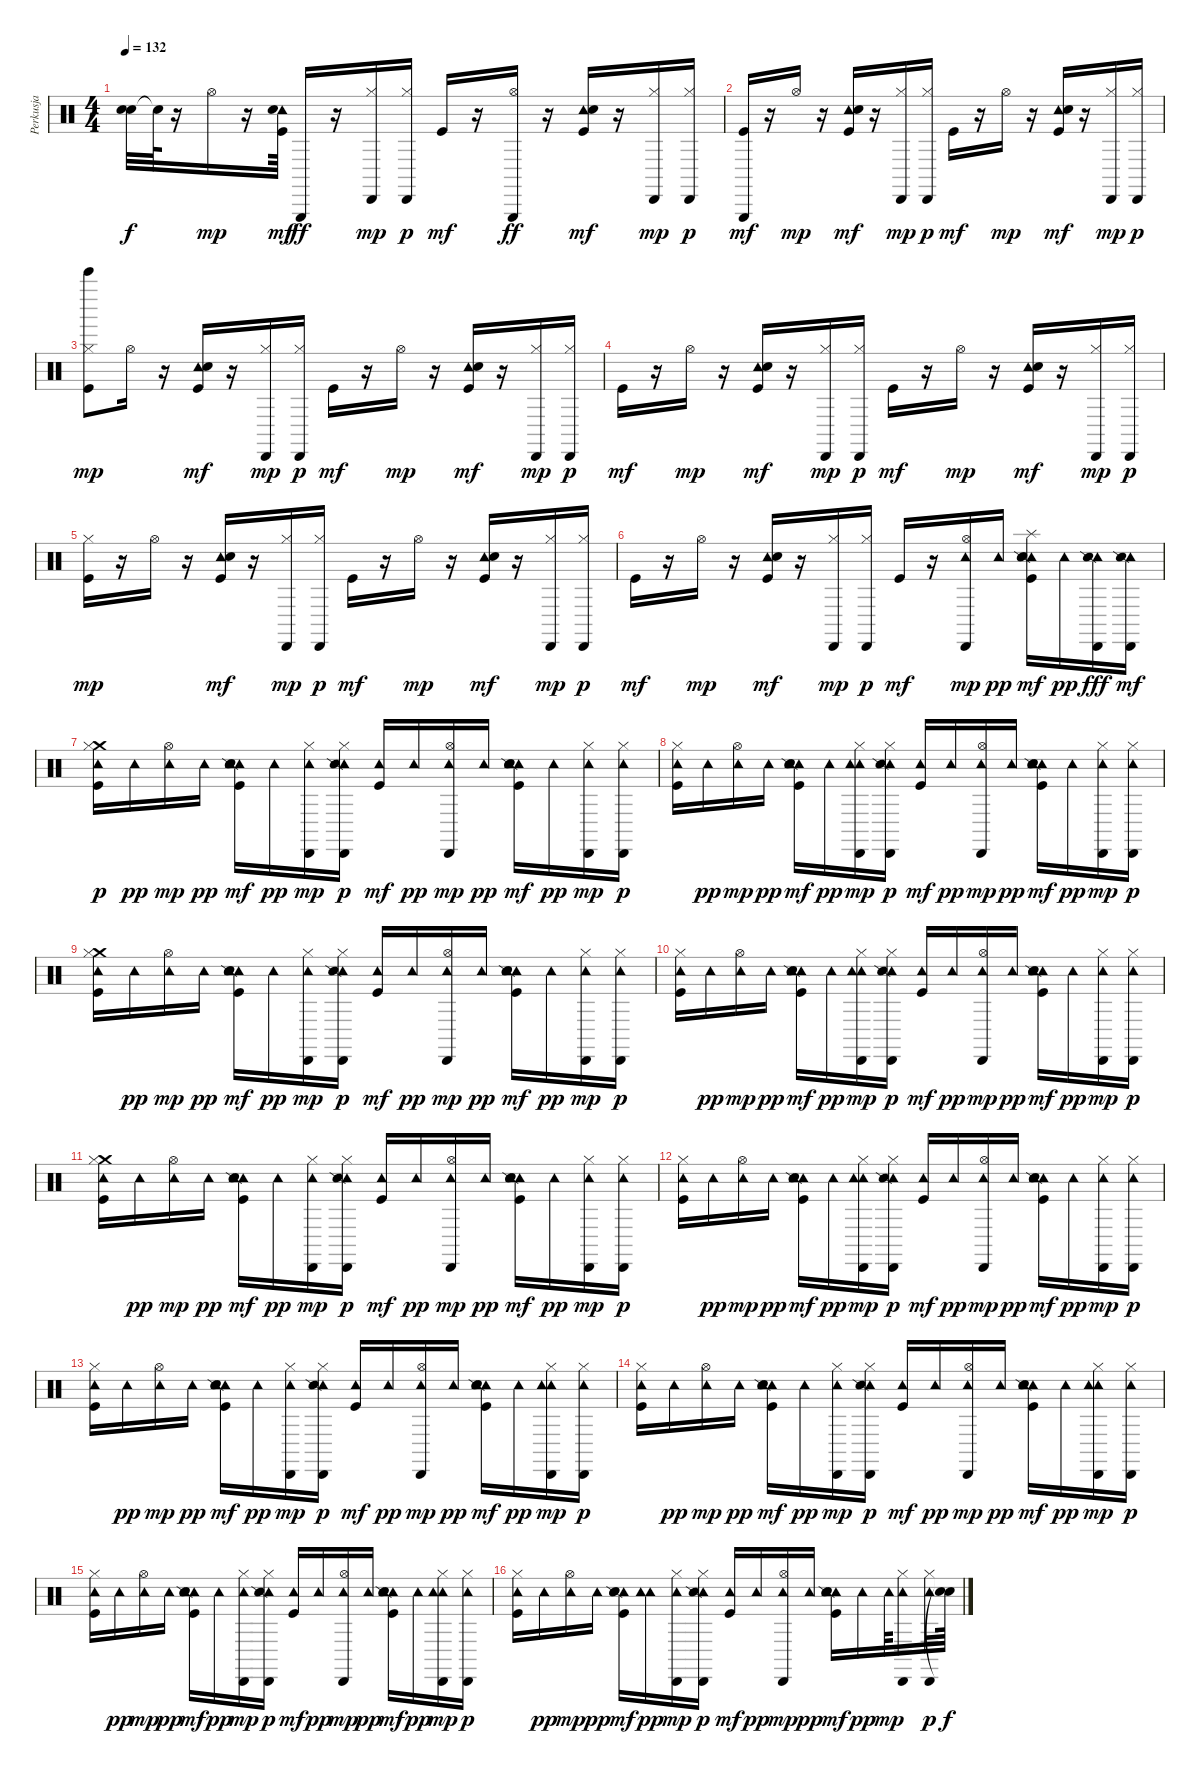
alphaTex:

\track ("Perkusja" "Perkusja") {instrument percussion}
\staff {score}
\articulation defaults
\ts (4 4)
\tempo 132
\clef neutral
\ks c
("Snare (hit)"{t} "Snare (hit)"{t}).32{dy f} "Snare (hit)"{t}.64 r.16 "Hi-Hat (open)".16{dy mp} r.16 ("Tambourine (hit)" "Snare (hit) 2" "Kick (hit)").64{dy mf} "Triangle (hit)".16{dy ff} r.16 ("Cabasa (hit)" "Hi-Hat (closed)").16{dy mp} ("Cabasa (hit)" "Hi-Hat (closed)").16{dy p} "Kick (hit)".16{dy mf} r.16 ("Hi-Hat (open)" "Triangle (hit)").16{dy ff} r.16 ("Tambourine (hit)" "Snare (hit) 2" "Kick (hit)").16{dy mf} r.16 ("Cabasa (hit)" "Hi-Hat (closed)").16{dy mp} ("Cabasa (hit)" "Hi-Hat (closed)").16{dy p} |
("Triangle (hit)" "Kick (hit)").16{dy mf} r.16 "Hi-Hat (open)".16{dy mp} r.16 ("Tambourine (hit)" "Snare (hit) 2" "Kick (hit)").16{dy mf} r.16 ("Cabasa (hit)" "Hi-Hat (closed)").16{dy mp} ("Cabasa (hit)" "Hi-Hat (closed)").16{dy p} "Kick (hit)".16{dy mf} r.16 "Hi-Hat (open)".16{dy mp} r.16 ("Tambourine (hit)" "Snare (hit) 2" "Kick (hit)").16{dy mf} r.16 ("Cabasa (hit)" "Hi-Hat (closed)").16{dy mp} ("Cabasa (hit)" "Hi-Hat (closed)").16{dy p} |
("Bell Tree (hit)" "Kick (hit)" "Hi-Hat (closed)").8{dy mp} "Hi-Hat (open)".16 r.16 ("Tambourine (hit)" "Snare (hit) 2" "Kick (hit)").16{dy mf} r.16 ("Cabasa (hit)" "Hi-Hat (closed)").16{dy mp} ("Cabasa (hit)" "Hi-Hat (closed)").16{dy p} "Kick (hit)".16{dy mf} r.16 "Hi-Hat (open)".16{dy mp} r.16 ("Tambourine (hit)" "Snare (hit) 2" "Kick (hit)").16{dy mf} r.16 ("Cabasa (hit)" "Hi-Hat (closed)").16{dy mp} ("Cabasa (hit)" "Hi-Hat (closed)").16{dy p} |
"Kick (hit)".16{dy mf} r.16 "Hi-Hat (open)".16{dy mp} r.16 ("Tambourine (hit)" "Snare (hit) 2" "Kick (hit)").16{dy mf} r.16 ("Cabasa (hit)" "Hi-Hat (closed)").16{dy mp} ("Cabasa (hit)" "Hi-Hat (closed)").16{dy p} "Kick (hit)".16{dy mf} r.16 "Hi-Hat (open)".16{dy mp} r.16 ("Tambourine (hit)" "Snare (hit) 2" "Kick (hit)").16{dy mf} r.16 ("Cabasa (hit)" "Hi-Hat (closed)").16{dy mp} ("Cabasa (hit)" "Hi-Hat (closed)").16{dy p} |
("Kick (hit)" "Hi-Hat (closed)").16{dy mp} r.16 "Hi-Hat (open)".16 r.16 ("Tambourine (hit)" "Snare (hit) 2" "Kick (hit)").16{dy mf} r.16 ("Cabasa (hit)" "Hi-Hat (closed)").16{dy mp} ("Cabasa (hit)" "Hi-Hat (closed)").16{dy p} "Kick (hit)".16{dy mf} r.16 "Hi-Hat (open)".16{dy mp} r.16 ("Tambourine (hit)" "Snare (hit) 2" "Kick (hit)").16{dy mf} r.16 ("Cabasa (hit)" "Hi-Hat (closed)").16{dy mp} ("Cabasa (hit)" "Hi-Hat (closed)").16{dy p} |
"Kick (hit)".16{dy mf} r.16 "Hi-Hat (open)".16{dy mp} r.16 ("Tambourine (hit)" "Snare (hit) 2" "Kick (hit)").16{dy mf} r.16 ("Cabasa (hit)" "Hi-Hat (closed)").16{dy mp} ("Cabasa (hit)" "Hi-Hat (closed)").16{dy p} "Kick (hit)".16{dy mf} r.16 ("Tambourine (hit)" "Cabasa (hit)" "Hi-Hat (open)").16{dy mp} "Tambourine (hit)".16{dy pp} ("Tambourine (hit)" "Snare (hit) 2" "Snare (side stick) 2" "Kick (hit)" "Splash (hit)").16{dy mf} "Tambourine (hit)".16{dy pp} ("Tambourine (hit)" "Snare (side stick) 2" "Cabasa (hit)").16{dy fff} ("Tambourine (hit)" "Snare (side stick) 2" "Cabasa (hit)").16{dy mf} |
("Crash medium (hit)" "Tambourine (hit)" "Kick (hit)" "Hi-Hat (closed)").16{dy p} "Tambourine (hit)".16{dy pp} ("Tambourine (hit)" "Hi-Hat (open)").16{dy mp} "Tambourine (hit)".16{dy pp} ("Tambourine (hit)" "Tambourine (hit)" "Snare (hit) 2" "Snare (side stick) 2" "Kick (hit)").16{dy mf} "Tambourine (hit)".16{dy pp} ("Tambourine (hit)" "Cabasa (hit)" "Hi-Hat (closed)").16{dy mp} ("Tambourine (hit)" "Snare (side stick) 2" "Cabasa (hit)" "Hi-Hat (closed)").16{dy p} ("Tambourine (hit)" "Kick (hit)").16{dy mf} "Tambourine (hit)".16{dy pp} ("Tambourine (hit)" "Cabasa (hit)" "Hi-Hat (open)").16{dy mp} "Tambourine (hit)".16{dy pp} ("Tambourine (hit)" "Tambourine (hit)" "Snare (hit) 2" "Snare (side stick) 2" "Kick (hit)").16{dy mf} "Tambourine (hit)".16{dy pp} ("Tambourine (hit)" "Cabasa (hit)" "Hi-Hat (closed)").16{dy mp} ("Tambourine (hit)" "Cabasa (hit)" "Hi-Hat (closed)").16{dy p} |
("Tambourine (hit)" "Kick (hit)" "Hi-Hat (closed)").16 "Tambourine (hit)".16{dy pp} ("Tambourine (hit)" "Hi-Hat (open)").16{dy mp} "Tambourine (hit)".16{dy pp} ("Tambourine (hit)" "Tambourine (hit)" "Snare (hit) 2" "Snare (side stick) 2" "Kick (hit)").16{dy mf} "Tambourine (hit)".16{dy pp} ("Tambourine (hit)" "Tambourine (hit)" "Cabasa (hit)" "Hi-Hat (closed)").16{dy mp} ("Tambourine (hit)" "Snare (side stick) 2" "Cabasa (hit)" "Hi-Hat (closed)").16{dy p} ("Tambourine (hit)" "Kick (hit)").16{dy mf} "Tambourine (hit)".16{dy pp} ("Tambourine (hit)" "Cabasa (hit)" "Hi-Hat (open)").16{dy mp} "Tambourine (hit)".16{dy pp} ("Tambourine (hit)" "Tambourine (hit)" "Snare (hit) 2" "Snare (side stick) 2" "Kick (hit)").16{dy mf} "Tambourine (hit)".16{dy pp} ("Tambourine (hit)" "Cabasa (hit)" "Hi-Hat (closed)").16{dy mp} ("Tambourine (hit)" "Cabasa (hit)" "Hi-Hat (closed)").16{dy p} |
("Crash medium (hit)" "Tambourine (hit)" "Kick (hit)" "Hi-Hat (closed)").16 "Tambourine (hit)".16{dy pp} ("Tambourine (hit)" "Hi-Hat (open)").16{dy mp} "Tambourine (hit)".16{dy pp} ("Tambourine (hit)" "Tambourine (hit)" "Snare (hit) 2" "Snare (side stick) 2" "Kick (hit)").16{dy mf} "Tambourine (hit)".16{dy pp} ("Tambourine (hit)" "Cabasa (hit)" "Hi-Hat (closed)").16{dy mp} ("Tambourine (hit)" "Snare (side stick) 2" "Cabasa (hit)" "Hi-Hat (closed)").16{dy p} ("Tambourine (hit)" "Kick (hit)").16{dy mf} "Tambourine (hit)".16{dy pp} ("Tambourine (hit)" "Cabasa (hit)" "Hi-Hat (open)").16{dy mp} "Tambourine (hit)".16{dy pp} ("Tambourine (hit)" "Tambourine (hit)" "Snare (hit) 2" "Snare (side stick) 2" "Kick (hit)").16{dy mf} "Tambourine (hit)".16{dy pp} ("Tambourine (hit)" "Cabasa (hit)" "Hi-Hat (closed)").16{dy mp} ("Tambourine (hit)" "Cabasa (hit)" "Hi-Hat (closed)").16{dy p} |
("Tambourine (hit)" "Kick (hit)" "Hi-Hat (closed)").16 "Tambourine (hit)".16{dy pp} ("Tambourine (hit)" "Hi-Hat (open)").16{dy mp} "Tambourine (hit)".16{dy pp} ("Tambourine (hit)" "Tambourine (hit)" "Snare (hit) 2" "Snare (side stick) 2" "Kick (hit)").16{dy mf} "Tambourine (hit)".16{dy pp} ("Tambourine (hit)" "Tambourine (hit)" "Cabasa (hit)" "Hi-Hat (closed)").16{dy mp} ("Tambourine (hit)" "Snare (side stick) 2" "Cabasa (hit)" "Hi-Hat (closed)").16{dy p} ("Tambourine (hit)" "Kick (hit)").16{dy mf} "Tambourine (hit)".16{dy pp} ("Tambourine (hit)" "Cabasa (hit)" "Hi-Hat (open)").16{dy mp} "Tambourine (hit)".16{dy pp} ("Tambourine (hit)" "Tambourine (hit)" "Snare (hit) 2" "Snare (side stick) 2" "Kick (hit)").16{dy mf} "Tambourine (hit)".16{dy pp} ("Tambourine (hit)" "Cabasa (hit)" "Hi-Hat (closed)").16{dy mp} ("Tambourine (hit)" "Cabasa (hit)" "Hi-Hat (closed)").16{dy p} |
("Crash medium (hit)" "Tambourine (hit)" "Kick (hit)" "Hi-Hat (closed)").16 "Tambourine (hit)".16{dy pp} ("Tambourine (hit)" "Hi-Hat (open)").16{dy mp} "Tambourine (hit)".16{dy pp} ("Tambourine (hit)" "Tambourine (hit)" "Snare (hit) 2" "Snare (side stick) 2" "Kick (hit)").16{dy mf} "Tambourine (hit)".16{dy pp} ("Tambourine (hit)" "Cabasa (hit)" "Hi-Hat (closed)").16{dy mp} ("Tambourine (hit)" "Snare (side stick) 2" "Cabasa (hit)" "Hi-Hat (closed)").16{dy p} ("Tambourine (hit)" "Kick (hit)").16{dy mf} "Tambourine (hit)".16{dy pp} ("Tambourine (hit)" "Cabasa (hit)" "Hi-Hat (open)").16{dy mp} "Tambourine (hit)".16{dy pp} ("Tambourine (hit)" "Tambourine (hit)" "Snare (hit) 2" "Snare (side stick) 2" "Kick (hit)").16{dy mf} "Tambourine (hit)".16{dy pp} ("Tambourine (hit)" "Cabasa (hit)" "Hi-Hat (closed)").16{dy mp} ("Tambourine (hit)" "Cabasa (hit)" "Hi-Hat (closed)").16{dy p} |
("Tambourine (hit)" "Kick (hit)" "Hi-Hat (closed)").16 "Tambourine (hit)".16{dy pp} ("Tambourine (hit)" "Hi-Hat (open)").16{dy mp} "Tambourine (hit)".16{dy pp} ("Tambourine (hit)" "Tambourine (hit)" "Snare (hit) 2" "Snare (side stick) 2" "Kick (hit)").16{dy mf} "Tambourine (hit)".16{dy pp} ("Tambourine (hit)" "Tambourine (hit)" "Cabasa (hit)" "Hi-Hat (closed)").16{dy mp} ("Tambourine (hit)" "Snare (side stick) 2" "Cabasa (hit)" "Hi-Hat (closed)").16{dy p} ("Tambourine (hit)" "Kick (hit)").16{dy mf} "Tambourine (hit)".16{dy pp} ("Tambourine (hit)" "Cabasa (hit)" "Hi-Hat (open)").16{dy mp} "Tambourine (hit)".16{dy pp} ("Tambourine (hit)" "Tambourine (hit)" "Snare (hit) 2" "Snare (side stick) 2" "Kick (hit)").16{dy mf} "Tambourine (hit)".16{dy pp} ("Tambourine (hit)" "Cabasa (hit)" "Hi-Hat (closed)").16{dy mp} ("Tambourine (hit)" "Cabasa (hit)" "Hi-Hat (closed)").16{dy p} |
("Tambourine (hit)" "Kick (hit)" "Hi-Hat (closed)").16 "Tambourine (hit)".16{dy pp} ("Tambourine (hit)" "Hi-Hat (open)").16{dy mp} "Tambourine (hit)".16{dy pp} ("Tambourine (hit)" "Snare (hit) 2" "Snare (side stick) 2" "Kick (hit)" "Tambourine (hit)").16{dy mf} "Tambourine (hit)".16{dy pp} ("Tambourine (hit)" "Cabasa (hit)" "Hi-Hat (closed)").16{dy mp} ("Tambourine (hit)" "Snare (side stick) 2" "Cabasa (hit)" "Hi-Hat (closed)").16{dy p} ("Tambourine (hit)" "Kick (hit)").16{dy mf} "Tambourine (hit)".16{dy pp} ("Tambourine (hit)" "Cabasa (hit)" "Hi-Hat (open)").16{dy mp} "Tambourine (hit)".16{dy pp} ("Tambourine (hit)" "Tambourine (hit)" "Snare (hit) 2" "Snare (side stick) 2" "Kick (hit)").16{dy mf} "Tambourine (hit)".16{dy pp} ("Tambourine (hit)" "Tambourine (hit)" "Cabasa (hit)" "Hi-Hat (closed)").16{dy mp} ("Tambourine (hit)" "Cabasa (hit)" "Hi-Hat (closed)").16{dy p} |
("Tambourine (hit)" "Kick (hit)" "Hi-Hat (closed)").16 "Tambourine (hit)".16{dy pp} ("Tambourine (hit)" "Hi-Hat (open)").16{dy mp} "Tambourine (hit)".16{dy pp} ("Tambourine (hit)" "Snare (hit) 2" "Snare (side stick) 2" "Kick (hit)" "Tambourine (hit)").16{dy mf} "Tambourine (hit)".16{dy pp} ("Tambourine (hit)" "Cabasa (hit)" "Hi-Hat (closed)").16{dy mp} ("Tambourine (hit)" "Snare (side stick) 2" "Cabasa (hit)" "Hi-Hat (closed)").16{dy p} ("Tambourine (hit)" "Kick (hit)").16{dy mf} "Tambourine (hit)".16{dy pp} ("Tambourine (hit)" "Cabasa (hit)" "Hi-Hat (open)").16{dy mp} "Tambourine (hit)".16{dy pp} ("Tambourine (hit)" "Tambourine (hit)" "Snare (hit) 2" "Snare (side stick) 2" "Kick (hit)").16{dy mf} "Tambourine (hit)".16{dy pp} ("Tambourine (hit)" "Tambourine (hit)" "Cabasa (hit)" "Hi-Hat (closed)").16{dy mp} ("Tambourine (hit)" "Cabasa (hit)" "Hi-Hat (closed)").16{dy p} |
("Tambourine (hit)" "Kick (hit)" "Hi-Hat (closed)").16 "Tambourine (hit)".16{dy pp} ("Tambourine (hit)" "Hi-Hat (open)").16{dy mp} "Tambourine (hit)".16{dy pp} ("Tambourine (hit)" "Tambourine (hit)" "Snare (hit) 2" "Snare (side stick) 2" "Kick (hit)").16{dy mf} "Tambourine (hit)".16{dy pp} ("Tambourine (hit)" "Cabasa (hit)" "Hi-Hat (closed)").16{dy mp} ("Tambourine (hit)" "Snare (side stick) 2" "Cabasa (hit)" "Hi-Hat (closed)").16{dy p} ("Tambourine (hit)" "Kick (hit)").16{dy mf} "Tambourine (hit)".16{dy pp} ("Tambourine (hit)" "Cabasa (hit)" "Hi-Hat (open)").16{dy mp} "Tambourine (hit)".16{dy pp} ("Tambourine (hit)" "Snare (hit) 2" "Snare (side stick) 2" "Kick (hit)" "Tambourine (hit)").16{dy mf} "Tambourine (hit)".16{dy pp} ("Tambourine (hit)" "Tambourine (hit)" "Cabasa (hit)" "Hi-Hat (closed)").16{dy mp} ("Tambourine (hit)" "Cabasa (hit)" "Hi-Hat (closed)").16{dy p} |
("Tambourine (hit)" "Kick (hit)" "Hi-Hat (closed)").16 "Tambourine (hit)".16{dy pp} ("Tambourine (hit)" "Hi-Hat (open)").16{dy mp} "Tambourine (hit)".16{dy pp} ("Tambourine (hit)" "Snare (hit) 2" "Snare (side stick) 2" "Kick (hit)").16{dy mf} ("Tambourine (hit)" "Tambourine (hit)").16{dy pp} ("Tambourine (hit)" "Cabasa (hit)" "Hi-Hat (closed)").16{dy mp} ("Tambourine (hit)" "Snare (side stick) 2" "Cabasa (hit)" "Hi-Hat (closed)").16{dy p} ("Tambourine (hit)" "Kick (hit)").16{dy mf} "Tambourine (hit)".16{dy pp} ("Tambourine (hit)" "Cabasa (hit)" "Hi-Hat (open)").16{dy mp} "Tambourine (hit)".16{dy pp} ("Tambourine (hit)" "Snare (hit) 2" "Snare (side stick) 2" "Kick (hit)" "Tambourine (hit)").16{dy mf} "Tambourine (hit)".16{dy pp} "Tambourine (hit)".64{dy mp} ("Tambourine (hit)" "Cabasa (hit)" "Hi-Hat (closed)").16 ("Tambourine (hit)" "Cabasa (hit)" "Hi-Hat (closed)").32{dy p} ("Snare (hit)"{t} "Snare (hit)"{t}).64{dy f}
